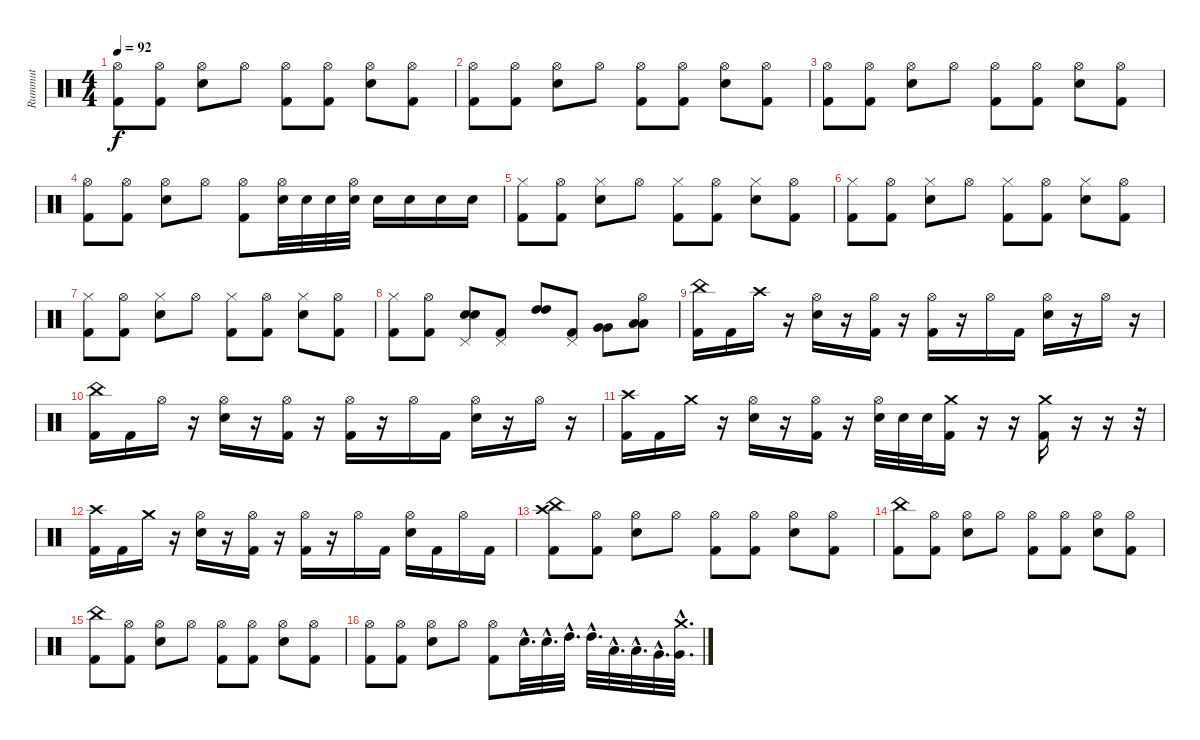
\track ("Rummut" "Rummut") {instrument percussion}
\staff {score}
\articulation defaults
\ts (4 4)
\tempo 92
\clef neutral
\ks c
("Hi-Hat (open)" "Kick (hit) 2").8{dy f} ("Hi-Hat (open)" "Kick (hit) 2").8 ("Hi-Hat (open)" "Snare (hit) 2").8 "Hi-Hat (open)".8 ("Hi-Hat (open)" "Kick (hit) 2").8 ("Hi-Hat (open)" "Kick (hit) 2").8 ("Hi-Hat (open)" "Snare (hit) 2").8 ("Hi-Hat (open)" "Kick (hit) 2").8 |
("Hi-Hat (open)" "Kick (hit) 2").8 ("Hi-Hat (open)" "Kick (hit) 2").8 ("Hi-Hat (open)" "Snare (hit) 2").8 "Hi-Hat (open)".8 ("Hi-Hat (open)" "Kick (hit) 2").8 ("Hi-Hat (open)" "Kick (hit) 2").8 ("Hi-Hat (open)" "Snare (hit) 2").8 ("Hi-Hat (open)" "Kick (hit) 2").8 |
("Hi-Hat (open)" "Kick (hit) 2").8 ("Hi-Hat (open)" "Kick (hit) 2").8 ("Hi-Hat (open)" "Snare (hit) 2").8 "Hi-Hat (open)".8 ("Hi-Hat (open)" "Kick (hit) 2").8 ("Hi-Hat (open)" "Kick (hit) 2").8 ("Hi-Hat (open)" "Snare (hit) 2").8 ("Hi-Hat (open)" "Kick (hit) 2").8 |
("Hi-Hat (open)" "Kick (hit) 2").8 ("Hi-Hat (open)" "Kick (hit) 2").8 ("Hi-Hat (open)" "Snare (hit) 2").8 "Hi-Hat (open)".8 ("Hi-Hat (open)" "Kick (hit) 2").8 ("Hi-Hat (open)" "Snare (hit) 2").32 "Snare (hit) 2".32 "Snare (hit) 2".32 ("Hi-Hat (open)" "Snare (hit) 2").32 "Snare (hit) 2".16 "Snare (hit) 2".16 "Snare (hit) 2".16 "Snare (hit) 2".16 |
("Hi-Hat (closed)" "Kick (hit) 2").8 ("Hi-Hat (open)" "Kick (hit) 2").8 ("Hi-Hat (closed)" "Snare (hit) 2").8 "Hi-Hat (open)".8 ("Hi-Hat (closed)" "Kick (hit) 2").8 ("Hi-Hat (open)" "Kick (hit) 2").8 ("Hi-Hat (closed)" "Snare (hit) 2").8 ("Hi-Hat (open)" "Kick (hit) 2").8 |
("Hi-Hat (closed)" "Kick (hit) 2").8 ("Hi-Hat (open)" "Kick (hit) 2").8 ("Hi-Hat (closed)" "Snare (hit) 2").8 "Hi-Hat (open)".8 ("Hi-Hat (closed)" "Kick (hit) 2").8 ("Hi-Hat (open)" "Kick (hit) 2").8 ("Hi-Hat (closed)" "Snare (hit) 2").8 ("Hi-Hat (open)" "Kick (hit) 2").8 |
("Hi-Hat (closed)" "Kick (hit) 2").8 ("Hi-Hat (open)" "Kick (hit) 2").8 ("Hi-Hat (closed)" "Snare (hit) 2").8 "Hi-Hat (open)".8 ("Hi-Hat (closed)" "Kick (hit) 2").8 ("Hi-Hat (open)" "Kick (hit) 2").8 ("Hi-Hat (closed)" "Snare (hit) 2").8 ("Hi-Hat (open)" "Kick (hit) 2").8 |
("Hi-Hat (closed)" "Kick (hit) 2").8 ("Hi-Hat (open)" "Kick (hit) 2").8 ("Pedal Hi-Hat (hit)" "Snare (hit) 2" "Snare (hit) 2").8 ("Pedal Hi-Hat (hit)" "Kick (hit) 2").8 ("High Tom (hit)" "High Tom (hit)").8 ("Pedal Hi-Hat (hit)" "Kick (hit) 2").8 ("Very Low Tom (hit)" "Very Low Tom (hit)").8 ("Hi-Hat (open)" "Low Floor Tom (hit)" "Low Floor Tom (hit)").8 |
("China (hit)" "Kick (hit) 2").16 "Kick (hit) 2".16 "Crash high (hit)".16 r.16 ("Hi-Hat (open)" "Snare (hit) 2").16 r.16 ("Hi-Hat (open)" "Kick (hit) 2").16 r.16 ("Hi-Hat (open)" "Kick (hit) 2").16 r.16 "Hi-Hat (open)".16 "Kick (hit) 2".16 ("Hi-Hat (open)" "Snare (hit) 2").16 r.16 "Hi-Hat (open)".16 r.16 |
("China (hit)" "Kick (hit) 2").16 "Kick (hit) 2".16 "Hi-Hat (open)".16 r.16 ("Hi-Hat (open)" "Snare (hit) 2").16 r.16 ("Hi-Hat (open)" "Kick (hit) 2").16 r.16 ("Hi-Hat (open)" "Kick (hit) 2").16 r.16 "Hi-Hat (open)".16 "Kick (hit) 2".16 ("Hi-Hat (open)" "Snare (hit) 2").16 r.16 "Hi-Hat (open)".16 r.16 |
("Crash high (hit)" "Kick (hit) 2").16 "Kick (hit) 2".16 "Crash medium (hit)".16 r.16 ("Hi-Hat (open)" "Snare (hit) 2").16 r.16 ("Hi-Hat (open)" "Kick (hit) 2").16 r.16 ("Hi-Hat (open)" "Snare (hit) 2").32 "Snare (hit) 2".32 "Snare (hit) 2".32 ("Crash medium (hit)" "Kick (hit) 2").16 r.16 r.16 ("Crash medium (hit)" "Kick (hit) 2").16 r.16 r.16 r.32 |
("Crash high (hit)" "Kick (hit) 2").16 "Kick (hit) 2".16 "Crash medium (hit)".16 r.16 ("Hi-Hat (open)" "Snare (hit) 2").16 r.16 ("Hi-Hat (open)" "Kick (hit) 2").16 r.16 ("Hi-Hat (open)" "Kick (hit) 2").16 r.16 "Hi-Hat (open)".16 "Kick (hit) 2".16 ("Hi-Hat (open)" "Snare (hit) 2").16 "Kick (hit) 2".16 "Hi-Hat (open)".16 "Kick (hit) 2".16 |
("China (hit)" "Crash high (hit)" "Kick (hit) 2").8 ("Hi-Hat (open)" "Kick (hit) 2").8 ("Hi-Hat (open)" "Snare (hit) 2").8 "Hi-Hat (open)".8 ("Hi-Hat (open)" "Kick (hit) 2").8 ("Hi-Hat (open)" "Kick (hit) 2").8 ("Hi-Hat (open)" "Snare (hit) 2").8 ("Hi-Hat (open)" "Kick (hit) 2").8 |
("China (hit)" "Kick (hit) 2").8 ("Hi-Hat (open)" "Kick (hit) 2").8 ("Hi-Hat (open)" "Snare (hit) 2").8 "Hi-Hat (open)".8 ("Hi-Hat (open)" "Kick (hit) 2").8 ("Hi-Hat (open)" "Kick (hit) 2").8 ("Hi-Hat (open)" "Snare (hit) 2").8 ("Hi-Hat (open)" "Kick (hit) 2").8 |
("China (hit)" "Kick (hit) 2").8 ("Hi-Hat (open)" "Kick (hit) 2").8 ("Hi-Hat (open)" "Snare (hit) 2").8 "Hi-Hat (open)".8 ("Hi-Hat (open)" "Kick (hit) 2").8 ("Hi-Hat (open)" "Kick (hit) 2").8 ("Hi-Hat (open)" "Snare (hit) 2").8 ("Hi-Hat (open)" "Kick (hit) 2").8 |
("Hi-Hat (open)" "Kick (hit) 2").8 ("Hi-Hat (open)" "Kick (hit) 2").8 ("Hi-Hat (open)" "Snare (hit) 2").8 "Hi-Hat (open)".8 ("Hi-Hat (open)" "Kick (hit) 2").8 "Snare (hit) 2"{hac}.32{d} "Snare (hit) 2"{hac}.32{d} "High Tom (hit)"{hac}.32{d} "High Tom (hit)"{hac}.32{d} "Low Tom (hit)"{hac}.32{d} "Low Tom (hit)"{hac}.32{d} "Very Low Tom (hit)"{hac}.32{d} ("Crash medium (hit)"{hac} "Very Low Tom (hit)"{hac}).32{d}
